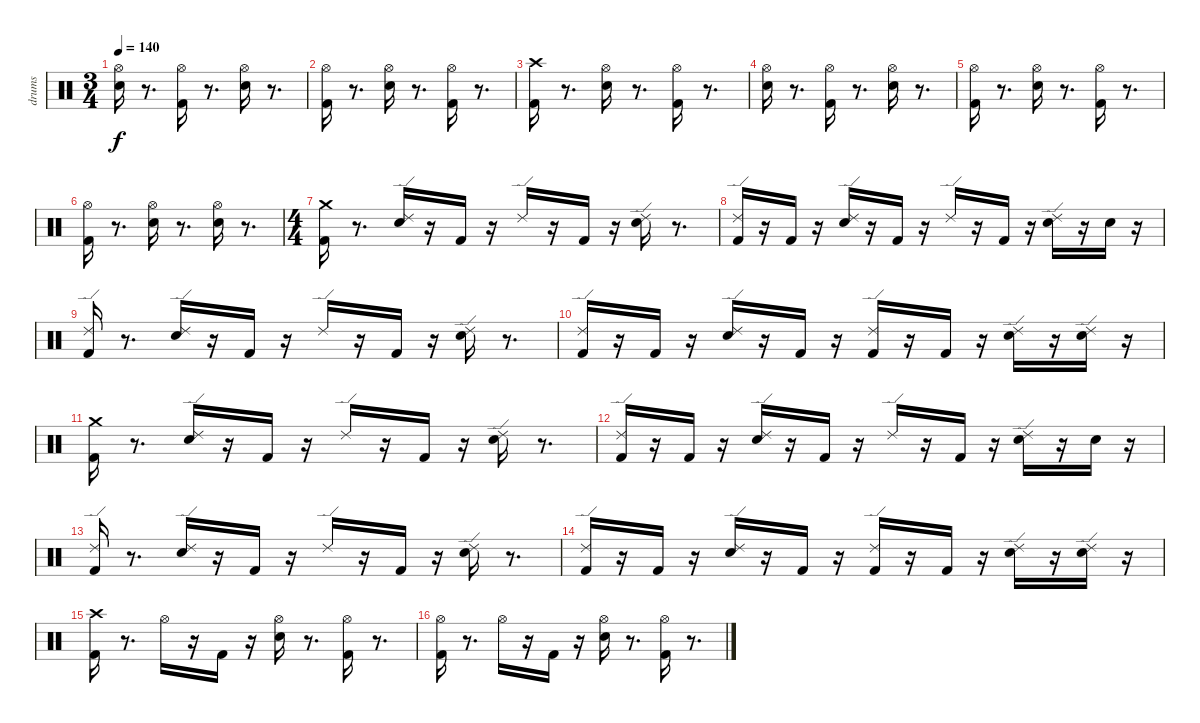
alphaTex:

\track ("drums" "drums") {instrument percussion}
\staff {score}
\articulation defaults
\ts (3 4)
\tempo 140
\clef neutral
\ks c
("Hi-Hat (open)" "Snare (hit) 2").16{dy f} r.8{d} ("Hi-Hat (open)" "Kick (hit) 2").16 r.8{d} ("Hi-Hat (open)" "Snare (hit) 2").16 r.8{d} |
("Hi-Hat (open)" "Kick (hit) 2").16 r.8{d} ("Hi-Hat (open)" "Snare (hit) 2").16 r.8{d} ("Hi-Hat (open)" "Kick (hit) 2").16 r.8{d} |
("Crash high (hit)" "Kick (hit) 2").16 r.8{d} ("Hi-Hat (open)" "Snare (hit) 2").16 r.8{d} ("Hi-Hat (open)" "Kick (hit) 2").16 r.8{d} |
("Hi-Hat (open)" "Snare (hit) 2").16 r.8{d} ("Hi-Hat (open)" "Kick (hit) 2").16 r.8{d} ("Hi-Hat (open)" "Snare (hit) 2").16 r.8{d} |
("Hi-Hat (open)" "Kick (hit) 2").16 r.8{d} ("Hi-Hat (open)" "Snare (hit) 2").16 r.8{d} ("Hi-Hat (open)" "Kick (hit) 2").16 r.8{d} |
("Hi-Hat (open)" "Kick (hit) 2").16 r.8{d} ("Hi-Hat (open)" "Snare (hit) 2").16 r.8{d} ("Hi-Hat (open)" "Snare (hit) 2").16 r.8{d} |
\ts (4 4)
("Crash medium (hit)" "Kick (hit) 2").16 r.8{d} ("Ride (edge) 2" "Snare (hit) 2").16 r.16 "Kick (hit) 2".16 r.16 "Ride (edge) 2".16 r.16 "Kick (hit) 2".16 r.16 ("Ride (edge) 2" "Snare (hit) 2").16 r.8{d} |
("Ride (edge) 2" "Kick (hit) 2").16 r.16 "Kick (hit) 2".16 r.16 ("Ride (edge) 2" "Snare (hit) 2").16 r.16 "Kick (hit) 2".16 r.16 "Ride (edge) 2".16 r.16 "Kick (hit) 2".16 r.16 ("Ride (edge) 2" "Snare (hit) 2").16 r.16 "Snare (hit) 2".16 r.16 |
("Ride (edge) 2" "Kick (hit) 2").16 r.8{d} ("Ride (edge) 2" "Snare (hit) 2").16 r.16 "Kick (hit) 2".16 r.16 "Ride (edge) 2".16 r.16 "Kick (hit) 2".16 r.16 ("Ride (edge) 2" "Snare (hit) 2").16 r.8{d} |
("Ride (edge) 2" "Kick (hit) 2").16 r.16 "Kick (hit) 2".16 r.16 ("Ride (edge) 2" "Snare (hit) 2").16 r.16 "Kick (hit) 2".16 r.16 ("Kick (hit) 2" "Ride (edge) 2").16 r.16 "Kick (hit) 2".16 r.16 ("Ride (edge) 2" "Snare (hit) 2").16 r.16 ("Ride (edge) 2" "Snare (hit) 2").16 r.16 |
("Crash medium (hit)" "Kick (hit) 2").16 r.8{d} ("Ride (edge) 2" "Snare (hit) 2").16 r.16 "Kick (hit) 2".16 r.16 "Ride (edge) 2".16 r.16 "Kick (hit) 2".16 r.16 ("Ride (edge) 2" "Snare (hit) 2").16 r.8{d} |
("Ride (edge) 2" "Kick (hit) 2").16 r.16 "Kick (hit) 2".16 r.16 ("Ride (edge) 2" "Snare (hit) 2").16 r.16 "Kick (hit) 2".16 r.16 "Ride (edge) 2".16 r.16 "Kick (hit) 2".16 r.16 ("Ride (edge) 2" "Snare (hit) 2").16 r.16 "Snare (hit) 2".16 r.16 |
("Ride (edge) 2" "Kick (hit) 2").16 r.8{d} ("Ride (edge) 2" "Snare (hit) 2").16 r.16 "Kick (hit) 2".16 r.16 "Ride (edge) 2".16 r.16 "Kick (hit) 2".16 r.16 ("Ride (edge) 2" "Snare (hit) 2").16 r.8{d} |
("Ride (edge) 2" "Kick (hit) 2").16 r.16 "Kick (hit) 2".16 r.16 ("Ride (edge) 2" "Snare (hit) 2").16 r.16 "Kick (hit) 2".16 r.16 ("Kick (hit) 2" "Ride (edge) 2").16 r.16 "Kick (hit) 2".16 r.16 ("Ride (edge) 2" "Snare (hit) 2").16 r.16 ("Ride (edge) 2" "Snare (hit) 2").16 r.16 |
("Crash high (hit)" "Kick (hit) 2").16 r.8{d} "Hi-Hat (open)".16 r.16 "Kick (hit) 2".16 r.16 ("Hi-Hat (open)" "Snare (hit) 2").16 r.8{d} ("Hi-Hat (open)" "Kick (hit) 2").16 r.8{d} |
("Hi-Hat (open)" "Kick (hit) 2").16 r.8{d} "Hi-Hat (open)".16 r.16 "Kick (hit) 2".16 r.16 ("Hi-Hat (open)" "Snare (hit) 2").16 r.8{d} ("Hi-Hat (open)" "Kick (hit) 2").16 r.8{d}
